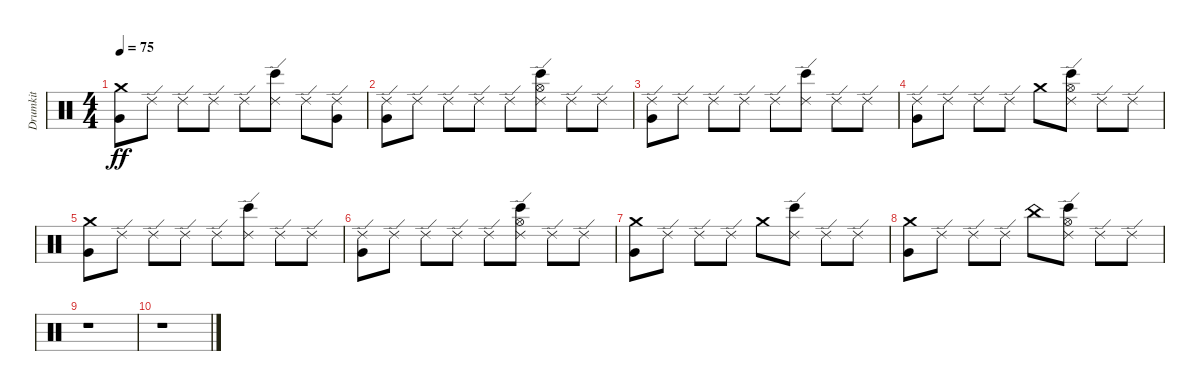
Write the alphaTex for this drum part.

\track ("Drumkit" "Drumkit") {instrument percussion}
\staff {score}
\articulation defaults
\ts (4 4)
\tempo 75
\clef neutral
\ks c
("Crash medium (hit)" "Very Low Tom (hit)").8{dy ff} "Ride (edge) 2".8 "Ride (edge) 2".8 "Ride (edge) 2".8 "Ride (edge) 2".8 ("Ride (edge) 2" "Bongo High (hit)").8 "Ride (edge) 2".8 ("Ride (edge) 2" "Very Low Tom (hit)").8 |
("Ride (edge) 2" "Very Low Tom (hit)").8 "Ride (edge) 2".8 "Ride (edge) 2".8 "Ride (edge) 2".8 "Ride (edge) 2".8 ("Hi-Hat (open)" "Ride (edge) 2" "Bongo High (hit)").8 "Ride (edge) 2".8 "Ride (edge) 2".8 |
("Ride (edge) 2" "Very Low Tom (hit)").8 "Ride (edge) 2".8 "Ride (edge) 2".8 "Ride (edge) 2".8 "Ride (edge) 2".8 ("Ride (edge) 2" "Bongo High (hit)").8 "Ride (edge) 2".8 "Ride (edge) 2".8 |
("Ride (edge) 2" "Very Low Tom (hit)").8 "Ride (edge) 2".8 "Ride (edge) 2".8 "Ride (edge) 2".8 "Crash medium (hit)".8 ("Hi-Hat (open)" "Ride (edge) 2" "Bongo High (hit)").8 "Ride (edge) 2".8 "Ride (edge) 2".8 |
("Crash medium (hit)" "Very Low Tom (hit)").8 "Ride (edge) 2".8 "Ride (edge) 2".8 "Ride (edge) 2".8 "Ride (edge) 2".8 ("Ride (edge) 2" "Bongo High (hit)").8 "Ride (edge) 2".8 "Ride (edge) 2".8 |
("Ride (edge) 2" "Very Low Tom (hit)").8 "Ride (edge) 2".8 "Ride (edge) 2".8 "Ride (edge) 2".8 "Ride (edge) 2".8 ("Hi-Hat (open)" "Ride (edge) 2" "Bongo High (hit)").8 "Ride (edge) 2".8 "Ride (edge) 2".8 |
("Crash medium (hit)" "Very Low Tom (hit)").8 "Ride (edge) 2".8 "Ride (edge) 2".8 "Ride (edge) 2".8 "Crash medium (hit)".8 ("Ride (edge) 2" "Bongo High (hit)").8 "Ride (edge) 2".8 "Ride (edge) 2".8 |
("Crash medium (hit)" "Very Low Tom (hit)").8 "Ride (edge) 2".8 "Ride (edge) 2".8 "Ride (edge) 2".8 "China (hit)".8 ("Hi-Hat (open)" "Ride (edge) 2" "Bongo High (hit)").8 "Ride (edge) 2".8 "Ride (edge) 2".8 |
r.1 |
r.1
